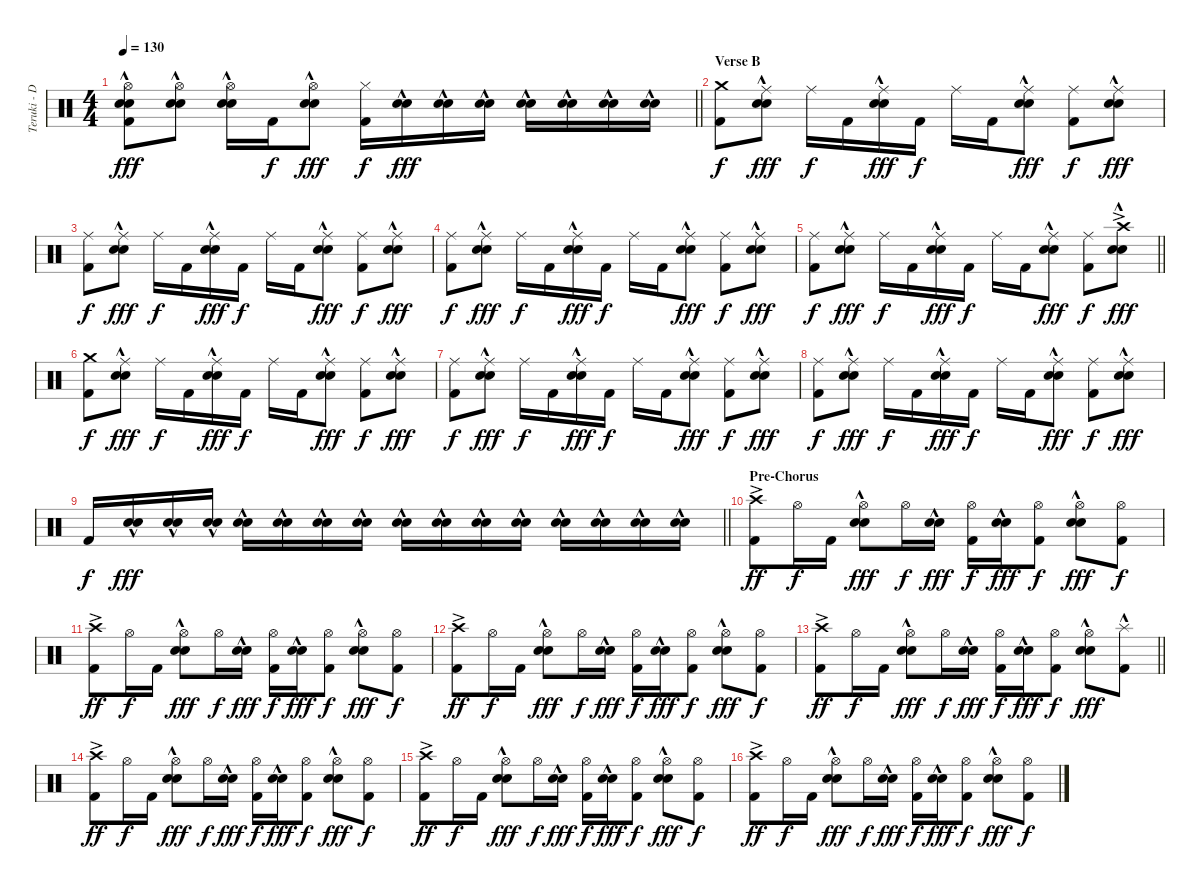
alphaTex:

\track ("Teruki - Drums" "Teruki - D") {instrument percussion}
\staff {score}
\articulation defaults
\ts (4 4)
\tempo 130
\clef neutral
\barLineRight lightlight
\ks c
("Hi-Hat (open)" "Electric Snare (hit)"{hac} "Snare (hit) 2" "Kick (hit) 2").8{dy fff} ("Hi-Hat (open)" "Electric Snare (hit)"{hac} "Snare (hit) 2").8 ("Hi-Hat (open)" "Electric Snare (hit)"{hac} "Snare (hit) 2").16 "Kick (hit) 2".16{dy f} ("Hi-Hat (open)" "Electric Snare (hit)"{hac} "Snare (hit) 2").8{dy fff} ("Hi-Hat (closed)" "Kick (hit) 2").16{dy f} ("Electric Snare (hit)"{hac} "Snare (hit) 2").16{dy fff} ("Electric Snare (hit)"{hac} "Snare (hit) 2").16 ("Electric Snare (hit)"{hac} "Snare (hit) 2").16 ("Electric Snare (hit)"{hac} "Snare (hit) 2").16 ("Electric Snare (hit)"{hac} "Snare (hit) 2").16 ("Electric Snare (hit)"{hac} "Snare (hit) 2").16 ("Electric Snare (hit)"{hac} "Snare (hit) 2").16 |
\section ("" "Verse B")
("Crash medium (hit)" "Kick (hit) 2").8{dy f} ("Ride (middle)" "Electric Snare (hit)"{hac} "Snare (hit) 2").8{dy fff} "Ride (middle)".16{dy f} "Kick (hit) 2".16 ("Ride (middle)" "Electric Snare (hit)"{hac} "Snare (hit) 2").16{dy fff} "Kick (hit) 2".16{dy f} "Ride (middle)".16 "Kick (hit) 2".16 ("Ride (middle)" "Electric Snare (hit)"{hac} "Snare (hit) 2").8{dy fff} ("Ride (middle)" "Kick (hit) 2").8{dy f} ("Ride (middle)" "Electric Snare (hit)"{hac} "Snare (hit) 2").8{dy fff} |
("Ride (middle)" "Kick (hit) 2").8{dy f} ("Ride (middle)" "Electric Snare (hit)"{hac} "Snare (hit) 2").8{dy fff} "Ride (middle)".16{dy f} "Kick (hit) 2".16 ("Ride (middle)" "Electric Snare (hit)"{hac} "Snare (hit) 2").16{dy fff} "Kick (hit) 2".16{dy f} "Ride (middle)".16 "Kick (hit) 2".16 ("Ride (middle)" "Electric Snare (hit)"{hac} "Snare (hit) 2").8{dy fff} ("Ride (middle)" "Kick (hit) 2").8{dy f} ("Ride (middle)" "Electric Snare (hit)"{hac} "Snare (hit) 2").8{dy fff} |
("Ride (middle)" "Kick (hit) 2").8{dy f} ("Ride (middle)" "Electric Snare (hit)"{hac} "Snare (hit) 2").8{dy fff} "Ride (middle)".16{dy f} "Kick (hit) 2".16 ("Ride (middle)" "Electric Snare (hit)"{hac} "Snare (hit) 2").16{dy fff} "Kick (hit) 2".16{dy f} "Ride (middle)".16 "Kick (hit) 2".16 ("Ride (middle)" "Electric Snare (hit)"{hac} "Snare (hit) 2").8{dy fff} ("Ride (middle)" "Kick (hit) 2").8{dy f} ("Ride (middle)" "Electric Snare (hit)"{hac} "Snare (hit) 2").8{dy fff} |
\barLineRight lightlight
("Ride (middle)" "Kick (hit) 2").8{dy f} ("Ride (middle)" "Electric Snare (hit)"{hac} "Snare (hit) 2").8{dy fff} "Ride (middle)".16{dy f} "Kick (hit) 2".16 ("Ride (middle)" "Electric Snare (hit)"{hac} "Snare (hit) 2").16{dy fff} "Kick (hit) 2".16{dy f} "Ride (middle)".16 "Kick (hit) 2".16 ("Ride (middle)" "Electric Snare (hit)"{hac} "Snare (hit) 2").8{dy fff} ("Ride (middle)" "Kick (hit) 2").8{dy f} ("Crash high (hit)"{ac} "Electric Snare (hit)"{hac} "Snare (hit) 2").8{dy fff} |
("Crash medium (hit)" "Kick (hit) 2").8{dy f} ("Ride (middle)" "Electric Snare (hit)"{hac} "Snare (hit) 2").8{dy fff} "Ride (middle)".16{dy f} "Kick (hit) 2".16 ("Ride (middle)" "Electric Snare (hit)"{hac} "Snare (hit) 2").16{dy fff} "Kick (hit) 2".16{dy f} "Ride (middle)".16 "Kick (hit) 2".16 ("Ride (middle)" "Electric Snare (hit)"{hac} "Snare (hit) 2").8{dy fff} ("Ride (middle)" "Kick (hit) 2").8{dy f} ("Ride (middle)" "Electric Snare (hit)"{hac} "Snare (hit) 2").8{dy fff} |
("Ride (middle)" "Kick (hit) 2").8{dy f} ("Ride (middle)" "Electric Snare (hit)"{hac} "Snare (hit) 2").8{dy fff} "Ride (middle)".16{dy f} "Kick (hit) 2".16 ("Ride (middle)" "Electric Snare (hit)"{hac} "Snare (hit) 2").16{dy fff} "Kick (hit) 2".16{dy f} "Ride (middle)".16 "Kick (hit) 2".16 ("Ride (middle)" "Electric Snare (hit)"{hac} "Snare (hit) 2").8{dy fff} ("Ride (middle)" "Kick (hit) 2").8{dy f} ("Ride (middle)" "Electric Snare (hit)"{hac} "Snare (hit) 2").8{dy fff} |
("Ride (middle)" "Kick (hit) 2").8{dy f} ("Ride (middle)" "Electric Snare (hit)"{hac} "Snare (hit) 2").8{dy fff} "Ride (middle)".16{dy f} "Kick (hit) 2".16 ("Ride (middle)" "Electric Snare (hit)"{hac} "Snare (hit) 2").16{dy fff} "Kick (hit) 2".16{dy f} "Ride (middle)".16 "Kick (hit) 2".16 ("Ride (middle)" "Electric Snare (hit)"{hac} "Snare (hit) 2").8{dy fff} ("Ride (middle)" "Kick (hit) 2").8{dy f} ("Ride (middle)" "Electric Snare (hit)"{hac} "Snare (hit) 2").8{dy fff} |
\barLineRight lightlight "Kick (hit) 2".16{dy f}
("Electric Snare (hit)"{hac} "Snare (hit) 2").16{dy fff} ("Electric Snare (hit)"{hac} "Snare (hit) 2").16 ("Electric Snare (hit)"{hac} "Snare (hit) 2").16 ("Electric Snare (hit)"{hac} "Snare (hit) 2").16 ("Electric Snare (hit)"{hac} "Snare (hit) 2").16 ("Electric Snare (hit)"{hac} "Snare (hit) 2").16 ("Electric Snare (hit)"{hac} "Snare (hit) 2").16 ("Electric Snare (hit)"{hac} "Snare (hit) 2").16 ("Electric Snare (hit)"{hac} "Snare (hit) 2").16 ("Electric Snare (hit)"{hac} "Snare (hit) 2").16 ("Electric Snare (hit)"{hac} "Snare (hit) 2").16 ("Electric Snare (hit)"{hac} "Snare (hit) 2").16 ("Electric Snare (hit)"{hac} "Snare (hit) 2").16 ("Electric Snare (hit)"{hac} "Snare (hit) 2").16 ("Electric Snare (hit)"{hac} "Snare (hit) 2").16 |
\section ("" "Pre-Chorus")
("Crash high (hit)"{ac} "Kick (hit) 2").8{dy ff} "Hi-Hat (open)".16{dy f} "Kick (hit) 2".16 ("Hi-Hat (open)" "Electric Snare (hit)"{hac} "Snare (hit) 2").8{dy fff} "Hi-Hat (open)".16{dy f} ("Electric Snare (hit)"{hac} "Snare (hit) 2").16{dy fff} ("Hi-Hat (open)" "Kick (hit) 2").16{dy f} ("Electric Snare (hit)"{hac} "Snare (hit) 2").16{dy fff} ("Hi-Hat (open)" "Kick (hit) 2").8{dy f} ("Hi-Hat (open)" "Electric Snare (hit)"{hac} "Snare (hit) 2").8{dy fff} ("Hi-Hat (open)" "Kick (hit) 2").8{dy f} |
("Crash high (hit)"{ac} "Kick (hit) 2").8{dy ff} "Hi-Hat (open)".16{dy f} "Kick (hit) 2".16 ("Hi-Hat (open)" "Electric Snare (hit)"{hac} "Snare (hit) 2").8{dy fff} "Hi-Hat (open)".16{dy f} ("Electric Snare (hit)"{hac} "Snare (hit) 2").16{dy fff} ("Hi-Hat (open)" "Kick (hit) 2").16{dy f} ("Electric Snare (hit)"{hac} "Snare (hit) 2").16{dy fff} ("Hi-Hat (open)" "Kick (hit) 2").8{dy f} ("Hi-Hat (open)" "Electric Snare (hit)"{hac} "Snare (hit) 2").8{dy fff} ("Hi-Hat (open)" "Kick (hit) 2").8{dy f} |
("Crash high (hit)"{ac} "Kick (hit) 2").8{dy ff} "Hi-Hat (open)".16{dy f} "Kick (hit) 2".16 ("Hi-Hat (open)" "Electric Snare (hit)"{hac} "Snare (hit) 2").8{dy fff} "Hi-Hat (open)".16{dy f} ("Electric Snare (hit)"{hac} "Snare (hit) 2").16{dy fff} ("Hi-Hat (open)" "Kick (hit) 2").16{dy f} ("Electric Snare (hit)"{hac} "Snare (hit) 2").16{dy fff} ("Hi-Hat (open)" "Kick (hit) 2").8{dy f} ("Hi-Hat (open)" "Electric Snare (hit)"{hac} "Snare (hit) 2").8{dy fff} ("Hi-Hat (open)" "Kick (hit) 2").8{dy f} |
\barLineRight lightlight
("Crash high (hit)"{ac} "Kick (hit) 2").8{dy ff} "Hi-Hat (open)".16{dy f} "Kick (hit) 2".16 ("Hi-Hat (open)" "Electric Snare (hit)"{hac} "Snare (hit) 2").8{dy fff} "Hi-Hat (open)".16{dy f} ("Electric Snare (hit)"{hac} "Snare (hit) 2").16{dy fff} ("Hi-Hat (open)" "Kick (hit) 2").16{dy f} ("Electric Snare (hit)"{hac} "Snare (hit) 2").16{dy fff} ("Hi-Hat (open)" "Kick (hit) 2").8{dy f} ("Hi-Hat (open)" "Electric Snare (hit)"{hac} "Snare (hit) 2").8{dy fff} ("Splash (hit)"{hac} "Kick (hit) 2").8 |
("Crash high (hit)"{ac} "Kick (hit) 2").8{dy ff} "Hi-Hat (open)".16{dy f} "Kick (hit) 2".16 ("Hi-Hat (open)" "Electric Snare (hit)"{hac} "Snare (hit) 2").8{dy fff} "Hi-Hat (open)".16{dy f} ("Electric Snare (hit)"{hac} "Snare (hit) 2").16{dy fff} ("Hi-Hat (open)" "Kick (hit) 2").16{dy f} ("Electric Snare (hit)"{hac} "Snare (hit) 2").16{dy fff} ("Hi-Hat (open)" "Kick (hit) 2").8{dy f} ("Hi-Hat (open)" "Electric Snare (hit)"{hac} "Snare (hit) 2").8{dy fff} ("Hi-Hat (open)" "Kick (hit) 2").8{dy f} |
("Crash high (hit)"{ac} "Kick (hit) 2").8{dy ff} "Hi-Hat (open)".16{dy f} "Kick (hit) 2".16 ("Hi-Hat (open)" "Electric Snare (hit)"{hac} "Snare (hit) 2").8{dy fff} "Hi-Hat (open)".16{dy f} ("Electric Snare (hit)"{hac} "Snare (hit) 2").16{dy fff} ("Hi-Hat (open)" "Kick (hit) 2").16{dy f} ("Electric Snare (hit)"{hac} "Snare (hit) 2").16{dy fff} ("Hi-Hat (open)" "Kick (hit) 2").8{dy f} ("Hi-Hat (open)" "Electric Snare (hit)"{hac} "Snare (hit) 2").8{dy fff} ("Hi-Hat (open)" "Kick (hit) 2").8{dy f} |
("Crash high (hit)"{ac} "Kick (hit) 2").8{dy ff} "Hi-Hat (open)".16{dy f} "Kick (hit) 2".16 ("Hi-Hat (open)" "Electric Snare (hit)"{hac} "Snare (hit) 2").8{dy fff} "Hi-Hat (open)".16{dy f} ("Electric Snare (hit)"{hac} "Snare (hit) 2").16{dy fff} ("Hi-Hat (open)" "Kick (hit) 2").16{dy f} ("Electric Snare (hit)"{hac} "Snare (hit) 2").16{dy fff} ("Hi-Hat (open)" "Kick (hit) 2").8{dy f} ("Hi-Hat (open)" "Electric Snare (hit)"{hac} "Snare (hit) 2").8{dy fff} ("Hi-Hat (open)" "Kick (hit) 2").8{dy f}
